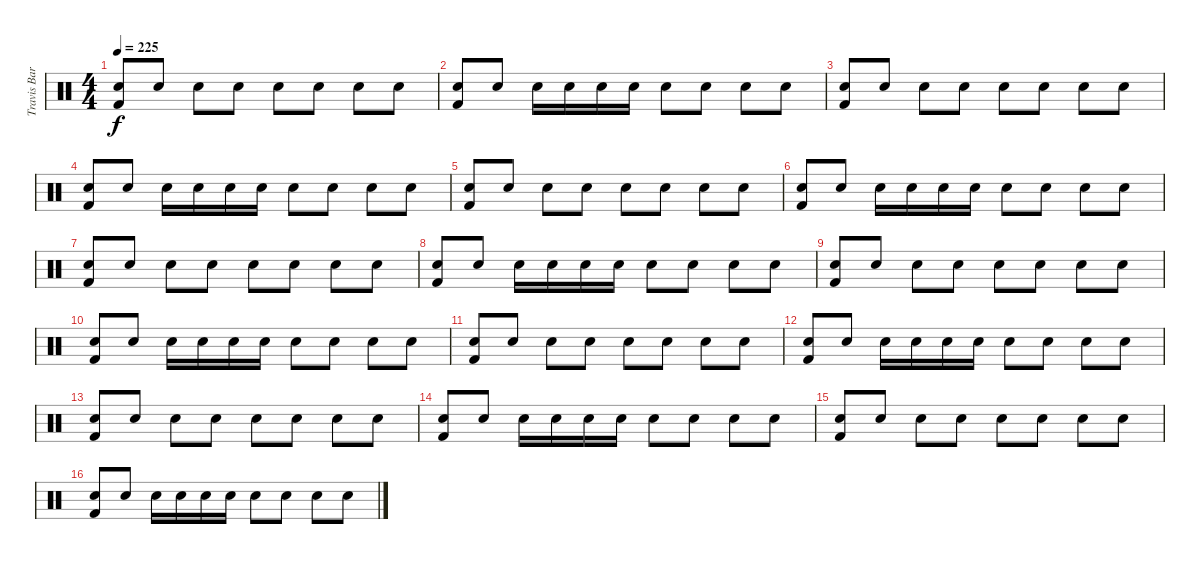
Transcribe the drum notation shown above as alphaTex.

\track ("Travis Barker (Drums)" "Travis Bar") {instrument percussion}
\staff {score}
\articulation defaults
\ts (4 4)
\tempo 225
\clef neutral
\ks c
("Snare (hit) 2" "Kick (hit) 2").8{dy f} "Snare (hit) 2".8 "Snare (hit) 2".8 "Electric Snare (hit)".8 "Snare (hit) 2".8 "Snare (hit) 2".8 "Electric Snare (hit)".8 "Snare (hit) 2".8 |
("Snare (hit) 2" "Kick (hit) 2").8 "Snare (hit) 2".8 "Snare (hit) 2".16 "Snare (hit) 2".16 "Snare (hit) 2".16 "Snare (hit) 2".16 "Electric Snare (hit)".8 "Electric Snare (hit)".8 "Snare (hit) 2".8 "Snare (hit) 2".8 |
("Snare (hit) 2" "Kick (hit) 2").8 "Snare (hit) 2".8 "Snare (hit) 2".8 "Electric Snare (hit)".8 "Snare (hit) 2".8 "Snare (hit) 2".8 "Electric Snare (hit)".8 "Snare (hit) 2".8 |
("Snare (hit) 2" "Kick (hit) 2").8 "Snare (hit) 2".8 "Snare (hit) 2".16 "Snare (hit) 2".16 "Snare (hit) 2".16 "Snare (hit) 2".16 "Electric Snare (hit)".8 "Electric Snare (hit)".8 "Snare (hit) 2".8 "Snare (hit) 2".8 |
("Snare (hit) 2" "Kick (hit) 2").8 "Snare (hit) 2".8 "Snare (hit) 2".8 "Electric Snare (hit)".8 "Snare (hit) 2".8 "Snare (hit) 2".8 "Electric Snare (hit)".8 "Snare (hit) 2".8 |
("Snare (hit) 2" "Kick (hit) 2").8 "Snare (hit) 2".8 "Snare (hit) 2".16 "Snare (hit) 2".16 "Snare (hit) 2".16 "Snare (hit) 2".16 "Electric Snare (hit)".8 "Electric Snare (hit)".8 "Snare (hit) 2".8 "Snare (hit) 2".8 |
("Snare (hit) 2" "Kick (hit) 2").8 "Snare (hit) 2".8 "Snare (hit) 2".8 "Electric Snare (hit)".8 "Snare (hit) 2".8 "Snare (hit) 2".8 "Electric Snare (hit)".8 "Snare (hit) 2".8 |
("Snare (hit) 2" "Kick (hit) 2").8 "Snare (hit) 2".8 "Snare (hit) 2".16 "Snare (hit) 2".16 "Snare (hit) 2".16 "Snare (hit) 2".16 "Electric Snare (hit)".8 "Electric Snare (hit)".8 "Snare (hit) 2".8 "Snare (hit) 2".8 |
("Snare (hit) 2" "Kick (hit) 2").8 "Snare (hit) 2".8 "Snare (hit) 2".8 "Electric Snare (hit)".8 "Snare (hit) 2".8 "Snare (hit) 2".8 "Electric Snare (hit)".8 "Snare (hit) 2".8 |
("Snare (hit) 2" "Kick (hit) 2").8 "Snare (hit) 2".8 "Snare (hit) 2".16 "Snare (hit) 2".16 "Snare (hit) 2".16 "Snare (hit) 2".16 "Electric Snare (hit)".8 "Electric Snare (hit)".8 "Snare (hit) 2".8 "Snare (hit) 2".8 |
("Snare (hit) 2" "Kick (hit) 2").8 "Snare (hit) 2".8 "Snare (hit) 2".8 "Electric Snare (hit)".8 "Snare (hit) 2".8 "Snare (hit) 2".8 "Electric Snare (hit)".8 "Snare (hit) 2".8 |
("Snare (hit) 2" "Kick (hit) 2").8 "Snare (hit) 2".8 "Snare (hit) 2".16 "Snare (hit) 2".16 "Snare (hit) 2".16 "Snare (hit) 2".16 "Electric Snare (hit)".8 "Electric Snare (hit)".8 "Snare (hit) 2".8 "Snare (hit) 2".8 |
("Snare (hit) 2" "Kick (hit) 2").8 "Snare (hit) 2".8 "Snare (hit) 2".8 "Electric Snare (hit)".8 "Snare (hit) 2".8 "Snare (hit) 2".8 "Electric Snare (hit)".8 "Snare (hit) 2".8 |
("Snare (hit) 2" "Kick (hit) 2").8 "Snare (hit) 2".8 "Snare (hit) 2".16 "Snare (hit) 2".16 "Snare (hit) 2".16 "Snare (hit) 2".16 "Electric Snare (hit)".8 "Electric Snare (hit)".8 "Snare (hit) 2".8 "Snare (hit) 2".8 |
("Snare (hit) 2" "Kick (hit) 2").8 "Snare (hit) 2".8 "Snare (hit) 2".8 "Electric Snare (hit)".8 "Snare (hit) 2".8 "Snare (hit) 2".8 "Electric Snare (hit)".8 "Snare (hit) 2".8 |
("Snare (hit) 2" "Kick (hit) 2").8 "Snare (hit) 2".8 "Snare (hit) 2".16 "Snare (hit) 2".16 "Snare (hit) 2".16 "Snare (hit) 2".16 "Electric Snare (hit)".8 "Electric Snare (hit)".8 "Electric Snare (hit)".8 "Electric Snare (hit)".8
